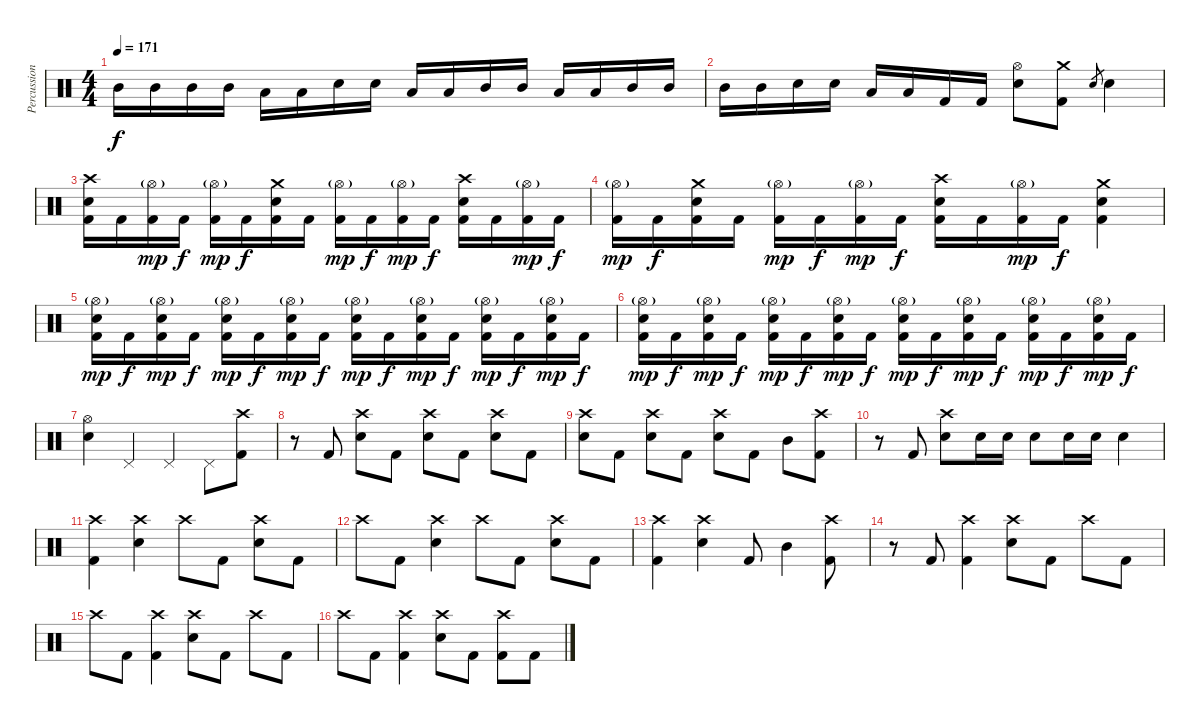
\track ("Percussion" "Percussion") {instrument percussion}
\staff {score}
\articulation defaults
\ts (4 4)
\tempo 171
\clef neutral
\ks c "Mid Tom (hit)".16{dy f} "Mid Tom (hit)".16 "Mid Tom (hit)".16 "Mid Tom (hit)".16 "Low Tom (hit)".16 "Low Tom (hit)".16 "Electric Snare (hit)".16 "Electric Snare (hit)".16 "Low Tom (hit)".16 "Low Tom (hit)".16 "Mid Tom (hit)".16 "Mid Tom (hit)".16 "Low Tom (hit)".16 "Low Tom (hit)".16 "Mid Tom (hit)".16 "Mid Tom (hit)".16
|
"Mid Tom (hit)".16 "Mid Tom (hit)".16 "Electric Snare (hit)".16 "Electric Snare (hit)".16 "Low Tom (hit)".16 "Low Tom (hit)".16 "Kick (hit) 2".16 "Kick (hit) 2".16 ("Hi-Hat (open)" "Electric Snare (hit)").8 ("Crash medium (hit)" "Kick (hit) 2").8 "Electric Snare (hit)".8{gr} "Electric Snare (hit)".4 |
("Crash high (hit)" "Electric Snare (hit)" "Kick (hit) 2").16 "Kick (hit) 2".16 ("Hi-Hat (open)"{g} "Kick (hit) 2").16{dy mp} "Kick (hit) 2".16{dy f} ("Hi-Hat (open)"{g} "Kick (hit) 2").16{dy mp} "Kick (hit) 2".16{dy f} ("Crash medium (hit)" "Electric Snare (hit)" "Kick (hit) 2").16 "Kick (hit) 2".16 ("Hi-Hat (open)"{g} "Kick (hit) 2").16{dy mp} "Kick (hit) 2".16{dy f} ("Hi-Hat (open)"{g} "Kick (hit) 2").16{dy mp} "Kick (hit) 2".16{dy f} ("Crash high (hit)" "Electric Snare (hit)" "Kick (hit) 2").16 "Kick (hit) 2".16 ("Hi-Hat (open)"{g} "Kick (hit) 2").16{dy mp} "Kick (hit) 2".16{dy f} |
("Hi-Hat (open)"{g} "Kick (hit) 2").16{dy mp} "Kick (hit) 2".16{dy f} ("Crash medium (hit)" "Electric Snare (hit)" "Kick (hit) 2").16 "Kick (hit) 2".16 ("Hi-Hat (open)"{g} "Kick (hit) 2").16{dy mp} "Kick (hit) 2".16{dy f} ("Hi-Hat (open)"{g} "Kick (hit) 2").16{dy mp} "Kick (hit) 2".16{dy f} ("Crash high (hit)" "Electric Snare (hit)" "Kick (hit) 2").16 "Kick (hit) 2".16 ("Hi-Hat (open)"{g} "Kick (hit) 2").16{dy mp} "Kick (hit) 2".16{dy f} ("Crash medium (hit)" "Electric Snare (hit)" "Kick (hit) 2").4 |
("Hi-Hat (open)"{g} "Electric Snare (hit)" "Kick (hit) 2").16{dy mp} "Kick (hit) 2".16{dy f} ("Hi-Hat (open)"{g} "Electric Snare (hit)" "Kick (hit) 2").16{dy mp} "Kick (hit) 2".16{dy f} ("Hi-Hat (open)"{g} "Electric Snare (hit)" "Kick (hit) 2").16{dy mp} "Kick (hit) 2".16{dy f} ("Hi-Hat (open)"{g} "Electric Snare (hit)" "Kick (hit) 2").16{dy mp} "Kick (hit) 2".16{dy f} ("Hi-Hat (open)"{g} "Electric Snare (hit)" "Kick (hit) 2").16{dy mp} "Kick (hit) 2".16{dy f} ("Hi-Hat (open)"{g} "Electric Snare (hit)" "Kick (hit) 2").16{dy mp} "Kick (hit) 2".16{dy f} ("Hi-Hat (open)"{g} "Electric Snare (hit)" "Kick (hit) 2").16{dy mp} "Kick (hit) 2".16{dy f} ("Hi-Hat (open)"{g} "Electric Snare (hit)" "Kick (hit) 2").16{dy mp} "Kick (hit) 2".16{dy f} |
("Hi-Hat (open)"{g} "Electric Snare (hit)" "Kick (hit) 2").16{dy mp} "Kick (hit) 2".16{dy f} ("Hi-Hat (open)"{g} "Electric Snare (hit)" "Kick (hit) 2").16{dy mp} "Kick (hit) 2".16{dy f} ("Hi-Hat (open)"{g} "Electric Snare (hit)" "Kick (hit) 2").16{dy mp} "Kick (hit) 2".16{dy f} ("Hi-Hat (open)"{g} "Electric Snare (hit)" "Kick (hit) 2").16{dy mp} "Kick (hit) 2".16{dy f} ("Hi-Hat (open)"{g} "Electric Snare (hit)" "Kick (hit) 2").16{dy mp} "Kick (hit) 2".16{dy f} ("Hi-Hat (open)"{g} "Electric Snare (hit)" "Kick (hit) 2").16{dy mp} "Kick (hit) 2".16{dy f} ("Hi-Hat (open)"{g} "Electric Snare (hit)" "Kick (hit) 2").16{dy mp} "Kick (hit) 2".16{dy f} ("Hi-Hat (open)"{g} "Electric Snare (hit)" "Kick (hit) 2").16{dy mp} "Kick (hit) 2".16{dy f} |
("Hi-Hat (open)" "Electric Snare (hit)").4 "Pedal Hi-Hat (hit)".4 "Pedal Hi-Hat (hit)".4 "Pedal Hi-Hat (hit)".8 ("Crash high (hit)" "Kick (hit) 2").8 |
r.8 "Kick (hit) 2".8 ("Crash high (hit)" "Electric Snare (hit)").8 "Kick (hit) 2".8 ("Crash high (hit)" "Electric Snare (hit)").8 "Kick (hit) 2".8 ("Crash high (hit)" "Electric Snare (hit)").8 "Kick (hit) 2".8 |
("Crash high (hit)" "Electric Snare (hit)").8 "Kick (hit) 2".8 ("Crash high (hit)" "Electric Snare (hit)").8 "Kick (hit) 2".8 ("Crash high (hit)" "Electric Snare (hit)").8 "Kick (hit) 2".8 "Mid Tom (hit)".8 ("Crash high (hit)" "Kick (hit) 2").8 |
r.8 "Kick (hit) 2".8 ("Crash high (hit)" "Electric Snare (hit)").8 "Electric Snare (hit)".16 "Electric Snare (hit)".16 "Electric Snare (hit)".8 "Electric Snare (hit)".16 "Electric Snare (hit)".16 "Electric Snare (hit)".4 |
("Crash high (hit)" "Kick (hit) 2").4 ("Crash high (hit)" "Electric Snare (hit)").4 "Crash high (hit)".8 "Kick (hit) 2".8 ("Crash high (hit)" "Electric Snare (hit)").8 "Kick (hit) 2".8 |
"Crash high (hit)".8 "Kick (hit) 2".8 ("Crash high (hit)" "Electric Snare (hit)").4 "Crash high (hit)".8 "Kick (hit) 2".8 ("Crash high (hit)" "Electric Snare (hit)").8 "Kick (hit) 2".8 |
("Crash high (hit)" "Kick (hit) 2").4 ("Crash high (hit)" "Electric Snare (hit)").4 "Kick (hit) 2".8 "Mid Tom (hit)".4 ("Crash high (hit)" "Kick (hit) 2").8 |
r.8 "Kick (hit) 2".8 ("Crash high (hit)" "Kick (hit) 2").4 ("Crash high (hit)" "Electric Snare (hit)").8 "Kick (hit) 2".8 "Crash high (hit)".8 "Kick (hit) 2".8 |
"Crash high (hit)".8 "Kick (hit) 2".8 ("Crash high (hit)" "Kick (hit) 2").4 ("Crash high (hit)" "Electric Snare (hit)").8 "Kick (hit) 2".8 "Crash high (hit)".8 "Kick (hit) 2".8 |
"Crash high (hit)".8 "Kick (hit) 2".8 ("Crash high (hit)" "Kick (hit) 2").4 ("Crash high (hit)" "Electric Snare (hit)").8 "Kick (hit) 2".8 ("Crash high (hit)" "Kick (hit) 2").8 "Kick (hit) 2".8
